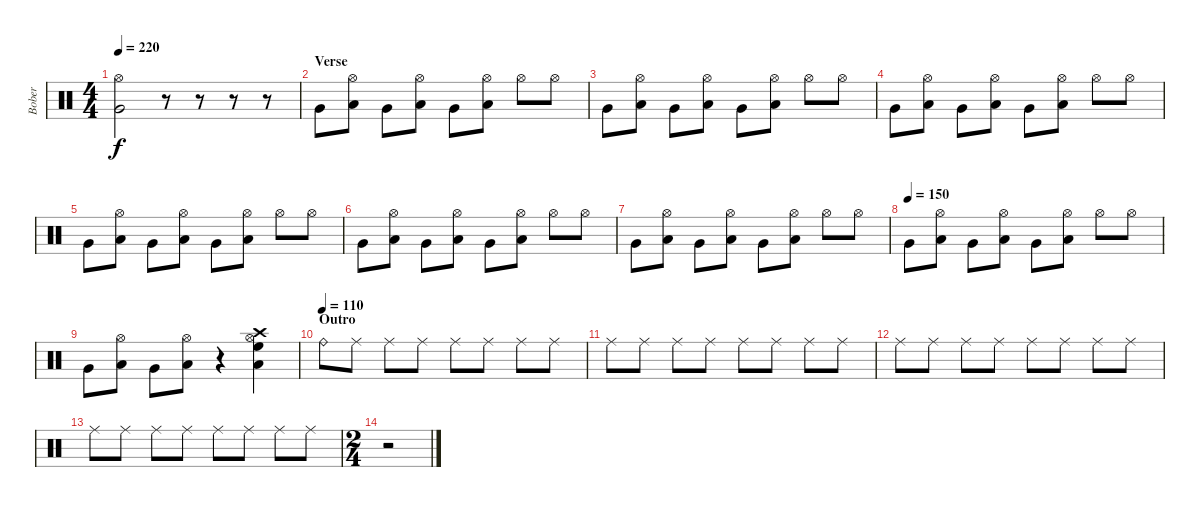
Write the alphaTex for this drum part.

\track ("Bober" "Bober") {instrument percussion}
\staff {score}
\articulation defaults
\ts (4 4)
\tempo 220
\clef neutral
\ks c
("Very Low Tom (hit)" "Hi-Hat (open)").2{dy f} r.8 r.8 r.8 r.8 |
\section ("" "Verse")
"Very Low Tom (hit)".8 ("Low Floor Tom (hit)" "Hi-Hat (open)").8 "Very Low Tom (hit)".8 ("Low Floor Tom (hit)" "Hi-Hat (open)").8 "Very Low Tom (hit)".8 ("Low Floor Tom (hit)" "Hi-Hat (open)").8 "Hi-Hat (open)".8 "Hi-Hat (open)".8 |
"Very Low Tom (hit)".8 ("Low Floor Tom (hit)" "Hi-Hat (open)").8 "Very Low Tom (hit)".8 ("Low Floor Tom (hit)" "Hi-Hat (open)").8 "Very Low Tom (hit)".8 ("Low Floor Tom (hit)" "Hi-Hat (open)").8 "Hi-Hat (open)".8 "Hi-Hat (open)".8 |
"Very Low Tom (hit)".8 ("Low Floor Tom (hit)" "Hi-Hat (open)").8 "Very Low Tom (hit)".8 ("Low Floor Tom (hit)" "Hi-Hat (open)").8 "Very Low Tom (hit)".8 ("Low Floor Tom (hit)" "Hi-Hat (open)").8 "Hi-Hat (open)".8 "Hi-Hat (open)".8 |
"Very Low Tom (hit)".8 ("Low Floor Tom (hit)" "Hi-Hat (open)").8 "Very Low Tom (hit)".8 ("Low Floor Tom (hit)" "Hi-Hat (open)").8 "Very Low Tom (hit)".8 ("Low Floor Tom (hit)" "Hi-Hat (open)").8 "Hi-Hat (open)".8 "Hi-Hat (open)".8 |
"Very Low Tom (hit)".8 ("Low Floor Tom (hit)" "Hi-Hat (open)").8 "Very Low Tom (hit)".8 ("Low Floor Tom (hit)" "Hi-Hat (open)").8 "Very Low Tom (hit)".8 ("Low Floor Tom (hit)" "Hi-Hat (open)").8 "Hi-Hat (open)".8 "Hi-Hat (open)".8 |
"Very Low Tom (hit)".8 ("Low Floor Tom (hit)" "Hi-Hat (open)").8 "Very Low Tom (hit)".8 ("Low Floor Tom (hit)" "Hi-Hat (open)").8 "Very Low Tom (hit)".8 ("Low Floor Tom (hit)" "Hi-Hat (open)").8 "Hi-Hat (open)".8 "Hi-Hat (open)".8 |
\tempo (150)
"Very Low Tom (hit)".8 ("Low Floor Tom (hit)" "Hi-Hat (open)").8 "Very Low Tom (hit)".8 ("Low Floor Tom (hit)" "Hi-Hat (open)").8 "Very Low Tom (hit)".8 ("Low Floor Tom (hit)" "Hi-Hat (open)").8 "Hi-Hat (open)".8 "Hi-Hat (open)".8 |
"Very Low Tom (hit)".8 ("Low Floor Tom (hit)" "Hi-Hat (open)").8 "Very Low Tom (hit)".8 ("Low Floor Tom (hit)" "Hi-Hat (open)").8 r.4 ("High Floor Tom (hit)" "Low Floor Tom (hit)" "Hi-Hat (open)" "Crash high (hit)").4 |
\section ("" "Outro")
\tempo (110)
"Ride (bell)".8 "Ride (middle)".8 "Ride (middle)".8 "Ride (middle)".8 "Ride (middle)".8 "Ride (middle)".8 "Ride (middle)".8 "Ride (middle)".8 |
"Ride (middle)".8 "Ride (middle)".8 "Ride (middle)".8 "Ride (middle)".8 "Ride (middle)".8 "Ride (middle)".8 "Ride (middle)".8 "Ride (middle)".8 |
"Ride (middle)".8 "Ride (middle)".8 "Ride (middle)".8 "Ride (middle)".8 "Ride (middle)".8 "Ride (middle)".8 "Ride (middle)".8 "Ride (middle)".8 |
"Ride (middle)".8 "Ride (middle)".8 "Ride (middle)".8 "Ride (middle)".8 "Ride (middle)".8 "Ride (middle)".8 "Ride (middle)".8 "Ride (middle)".8 |
\ts (2 4)
r.2
